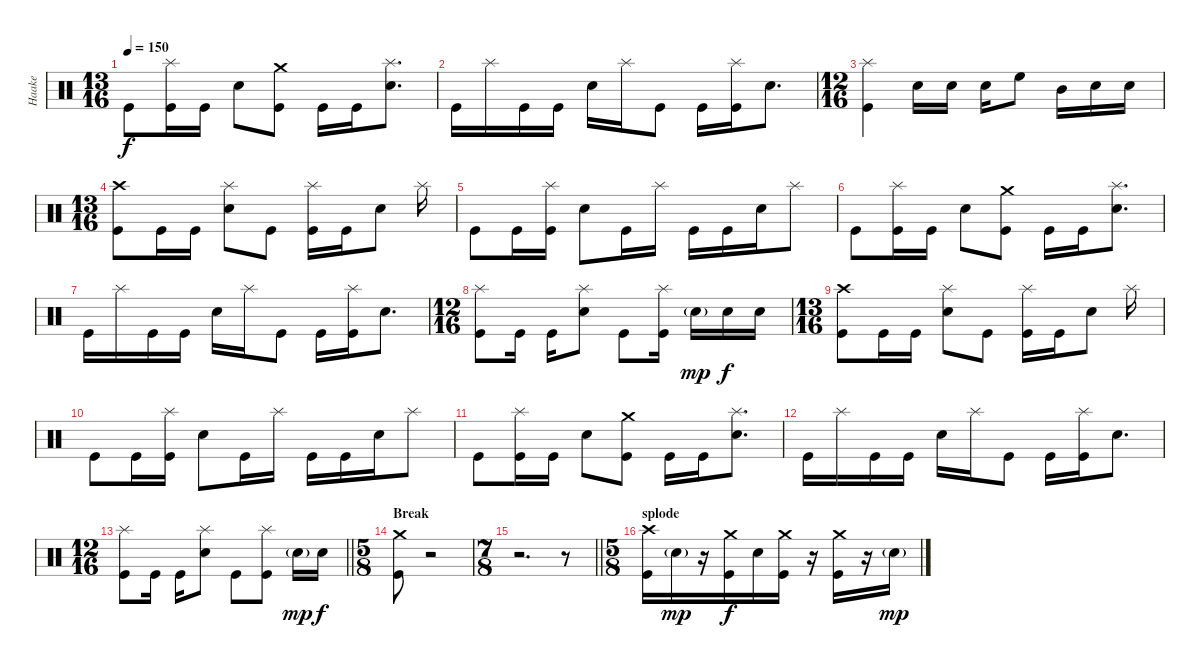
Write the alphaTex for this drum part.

\track ("Haake" "Haake") {instrument percussion}
\staff {score}
\articulation defaults
\ts (13 16)
\tempo 150
\clef neutral
\ks c "Kick (hit)".8{dy f}
("Splash (hit)" "Kick (hit)").16 "Kick (hit)".16 "Snare (hit) 2".8 ("Crash medium (hit)" "Kick (hit)").8 "Kick (hit)".16 "Kick (hit)".16 ("Splash (hit)" "Snare (hit) 2").8{d} |
"Kick (hit)".16 "Splash (hit)".16 "Kick (hit)".16 "Kick (hit)".16 "Snare (hit) 2".16 "Splash (hit)".16 "Kick (hit)".8 "Kick (hit)".16 ("Splash (hit)" "Kick (hit)").16 "Snare (hit) 2".8{d} |
\ts (12 16)
("Splash (hit)" "Kick (hit)").4 "Snare (hit) 2".16 "Snare (hit) 2".16 "Snare (hit) 2".16 "High Floor Tom (hit)".8 "Mid Tom (hit)".16 "Snare (hit) 2".16 "Snare (hit) 2".16 |
\ts (13 16)
("Crash high (hit)" "Kick (hit)").8 "Kick (hit)".16 "Kick (hit)".16 ("Splash (hit)" "Snare (hit) 2").8 "Kick (hit)".8 ("Splash (hit)" "Kick (hit)").16 "Kick (hit)".16 "Snare (hit) 2".8 "Splash (hit)".16 |
"Kick (hit)".8 "Kick (hit)".16 ("Splash (hit)" "Kick (hit)").16 "Snare (hit) 2".8 "Kick (hit)".16 "Splash (hit)".16 "Kick (hit)".16 "Kick (hit)".16 "Snare (hit) 2".16 "Splash (hit)".8 |
"Kick (hit)".8 ("Splash (hit)" "Kick (hit)").16 "Kick (hit)".16 "Snare (hit) 2".8 ("Crash medium (hit)" "Kick (hit)").8 "Kick (hit)".16 "Kick (hit)".16 ("Splash (hit)" "Snare (hit) 2").8{d} |
"Kick (hit)".16 "Splash (hit)".16 "Kick (hit)".16 "Kick (hit)".16 "Snare (hit) 2".16 "Splash (hit)".16 "Kick (hit)".8 "Kick (hit)".16 ("Splash (hit)" "Kick (hit)").16 "Snare (hit) 2".8{d} |
\ts (12 16)
("Splash (hit)" "Kick (hit)").8 "Kick (hit)".16 "Kick (hit)".16 ("Splash (hit)" "Snare (hit) 2").8 "Kick (hit)".8 ("Splash (hit)" "Kick (hit)").16 "Snare (hit) 2"{g}.16{dy mp} "Snare (hit) 2".16{dy f} "Snare (hit) 2".16 |
\ts (13 16)
("Crash high (hit)" "Kick (hit)").8 "Kick (hit)".16 "Kick (hit)".16 ("Splash (hit)" "Snare (hit) 2").8 "Kick (hit)".8 ("Splash (hit)" "Kick (hit)").16 "Kick (hit)".16 "Snare (hit) 2".8 "Splash (hit)".16 |
"Kick (hit)".8 "Kick (hit)".16 ("Splash (hit)" "Kick (hit)").16 "Snare (hit) 2".8 "Kick (hit)".16 "Splash (hit)".16 "Kick (hit)".16 "Kick (hit)".16 "Snare (hit) 2".16 "Splash (hit)".8 |
"Kick (hit)".8 ("Splash (hit)" "Kick (hit)").16 "Kick (hit)".16 "Snare (hit) 2".8 ("Crash medium (hit)" "Kick (hit)").8 "Kick (hit)".16 "Kick (hit)".16 ("Splash (hit)" "Snare (hit) 2").8{d} |
"Kick (hit)".16 "Splash (hit)".16 "Kick (hit)".16 "Kick (hit)".16 "Snare (hit) 2".16 "Splash (hit)".16 "Kick (hit)".8 "Kick (hit)".16 ("Splash (hit)" "Kick (hit)").16 "Snare (hit) 2".8{d} |
\ts (12 16)
\barLineRight lightlight
("Splash (hit)" "Kick (hit)").8 "Kick (hit)".16 "Kick (hit)".16 ("Splash (hit)" "Snare (hit) 2").8 "Kick (hit)".8 ("Splash (hit)" "Kick (hit)").8 "Snare (hit) 2"{g}.16{dy mp} "Snare (hit) 2".16{dy f} |
\ts (5 8)
\section ("" "Break")
("Crash medium (hit)" "Kick (hit)").8 r.2 |
\ts (7 8)
\barLineRight lightlight
r.2{d} r.8 |
\ts (5 8)
\section ("" "splode")
("Crash high (hit)" "Kick (hit)").16 "Snare (hit) 2"{g}.16{dy mp} r.16 ("Crash medium (hit)" "Kick (hit)").16{dy f} "Snare (hit) 2".16 ("Crash medium (hit)" "Kick (hit)").16 r.16 ("Crash medium (hit)" "Kick (hit)").16 r.16 "Snare (hit) 2"{g}.16{dy mp}
